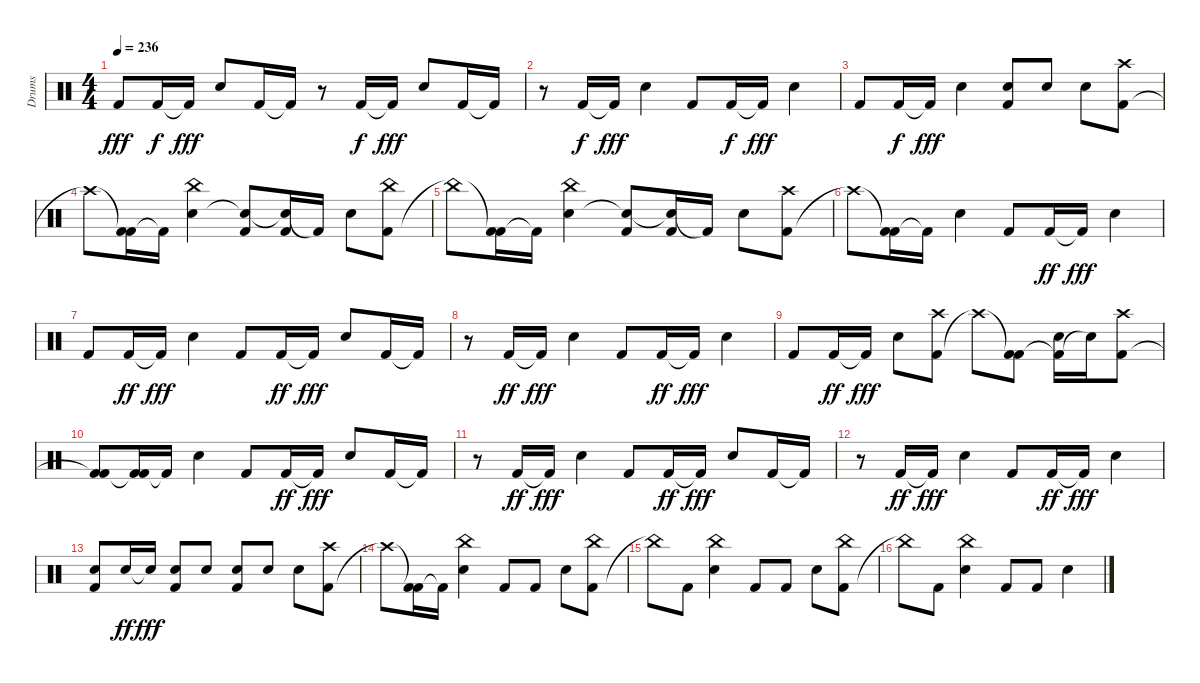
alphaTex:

\track ("Drums" "Drums") {instrument percussion}
\staff {score}
\articulation defaults
\ts (4 4)
\tempo 236
\clef neutral
\ks c "Kick (hit) 2".8{dy fff} "Kick (hit) 2".16{dy f} "Kick (hit) 2"{t}.16{dy fff} "Snare (hit) 2".8 "Kick (hit) 2".16 "Kick (hit) 2"{t}.16
r.8 "Kick (hit) 2".16{dy f} "Kick (hit) 2"{t}.16{dy fff} "Snare (hit) 2".8 "Kick (hit) 2".16 "Kick (hit) 2"{t}.16 |
r.8 "Kick (hit) 2".16{dy f} "Kick (hit) 2"{t}.16{dy fff} "Snare (hit) 2".4 "Kick (hit) 2".8 "Kick (hit) 2".16{dy f} "Kick (hit) 2"{t}.16{dy fff} "Snare (hit) 2".4 |
"Kick (hit) 2".8 "Kick (hit) 2".16{dy f} "Kick (hit) 2"{t}.16{dy fff} "Snare (hit) 2".4 ("Kick (hit) 2" "Snare (hit) 2").8 "Snare (hit) 2".8 "Snare (hit) 2".8 ("Kick (hit) 2" "Crash high (hit)").8 |
"Crash high (hit)"{t}.8 ("Kick (hit) 2"{t} "Kick (hit) 2").16 "Kick (hit) 2"{t}.16 ("Snare (hit) 2" "China (hit)").4 ("Snare (hit) 2"{t} "Kick (hit) 2").8 ("Snare (hit) 2"{t} "Kick (hit) 2").16 "Kick (hit) 2"{t}.16 "Snare (hit) 2".8 ("Kick (hit) 2" "China (hit)").8 |
"China (hit)"{t}.8 ("Kick (hit) 2"{t} "Kick (hit) 2").16 "Kick (hit) 2"{t}.16 ("Snare (hit) 2" "China (hit)").4 ("Snare (hit) 2"{t} "Kick (hit) 2").8 ("Snare (hit) 2"{t} "Kick (hit) 2").16 "Kick (hit) 2"{t}.16 "Snare (hit) 2".8 ("Kick (hit) 2" "Crash high (hit)").8 |
"Crash high (hit)"{t}.8 ("Kick (hit) 2"{t} "Kick (hit) 2").16 "Kick (hit) 2"{t}.16 "Snare (hit) 2".4 "Kick (hit) 2".8 "Kick (hit) 2".16{dy ff} "Kick (hit) 2"{t}.16{dy fff} "Snare (hit) 2".4 |
"Kick (hit) 2".8 "Kick (hit) 2".16{dy ff} "Kick (hit) 2"{t}.16{dy fff} "Snare (hit) 2".4 "Kick (hit) 2".8 "Kick (hit) 2".16{dy ff} "Kick (hit) 2"{t}.16{dy fff} "Snare (hit) 2".8 "Kick (hit) 2".16 "Kick (hit) 2"{t}.16 |
r.8 "Kick (hit) 2".16{dy ff} "Kick (hit) 2"{t}.16{dy fff} "Snare (hit) 2".4 "Kick (hit) 2".8 "Kick (hit) 2".16{dy ff} "Kick (hit) 2"{t}.16{dy fff} "Snare (hit) 2".4 |
"Kick (hit) 2".8 "Kick (hit) 2".16{dy ff} "Kick (hit) 2"{t}.16{dy fff} "Snare (hit) 2".8 ("Kick (hit) 2" "Crash high (hit)").8 "Crash high (hit)"{t}.8 ("Kick (hit) 2"{t} "Kick (hit) 2").8 ("Kick (hit) 2"{t} "Snare (hit) 2").16 "Snare (hit) 2"{t}.16 ("Kick (hit) 2" "Crash high (hit)").8 |
("Kick (hit) 2"{t} "Kick (hit) 2").8 ("Kick (hit) 2"{t} "Kick (hit) 2").16 "Kick (hit) 2"{t}.16 "Snare (hit) 2".4 "Kick (hit) 2".8 "Kick (hit) 2".16{dy ff} "Kick (hit) 2"{t}.16{dy fff} "Snare (hit) 2".8 "Kick (hit) 2".16 "Kick (hit) 2"{t}.16 |
r.8 "Kick (hit) 2".16{dy ff} "Kick (hit) 2"{t}.16{dy fff} "Snare (hit) 2".4 "Kick (hit) 2".8 "Kick (hit) 2".16{dy ff} "Kick (hit) 2"{t}.16{dy fff} "Snare (hit) 2".8 "Kick (hit) 2".16 "Kick (hit) 2"{t}.16 |
r.8 "Kick (hit) 2".16{dy ff} "Kick (hit) 2"{t}.16{dy fff} "Snare (hit) 2".4 "Kick (hit) 2".8 "Kick (hit) 2".16{dy ff} "Kick (hit) 2"{t}.16{dy fff} "Snare (hit) 2".4 |
("Kick (hit) 2" "Snare (hit) 2").8 "Snare (hit) 2".16{dy ff} "Snare (hit) 2"{t}.16{dy fff} ("Kick (hit) 2" "Snare (hit) 2").8 "Snare (hit) 2".8 ("Kick (hit) 2" "Snare (hit) 2").8 "Snare (hit) 2".8 "Snare (hit) 2".8 ("Kick (hit) 2" "Crash high (hit)").8 |
"Crash high (hit)"{t}.8 ("Kick (hit) 2"{t} "Kick (hit) 2").16 "Kick (hit) 2"{t}.16 ("Snare (hit) 2" "China (hit)").4 "Kick (hit) 2".8 "Kick (hit) 2".8 "Snare (hit) 2".8 ("Kick (hit) 2" "China (hit)").8 |
"China (hit)"{t}.8 "Kick (hit) 2".8 ("Snare (hit) 2" "China (hit)").4 "Kick (hit) 2".8 "Kick (hit) 2".8 "Snare (hit) 2".8 ("Kick (hit) 2" "China (hit)").8 |
"China (hit)"{t}.8 "Kick (hit) 2".8 ("Snare (hit) 2" "China (hit)").4 "Kick (hit) 2".8 "Kick (hit) 2".8 "Snare (hit) 2".4
